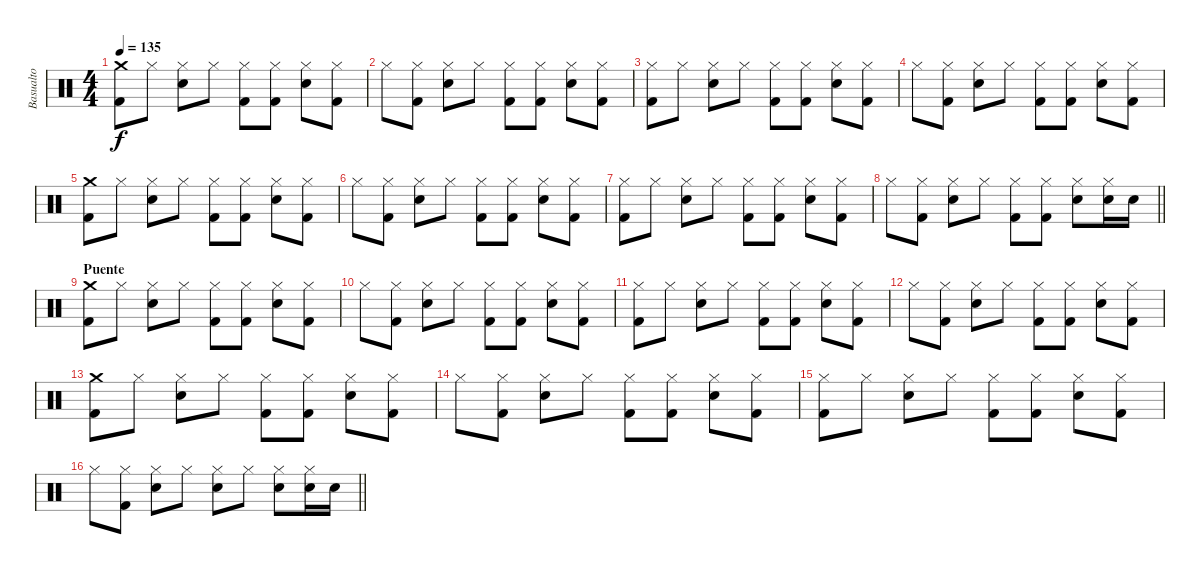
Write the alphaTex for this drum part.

\track ("Basualto" "Basualto") {instrument percussion}
\staff {score}
\articulation defaults
\ts (4 4)
\tempo 135
\clef neutral
\ks c
("Crash medium (hit)" "Kick (hit) 2").8{dy f} "Hi-Hat (closed)".8 ("Hi-Hat (closed)" "Snare (hit) 2").8 "Hi-Hat (closed)".8 ("Hi-Hat (closed)" "Kick (hit) 2").8 ("Hi-Hat (closed)" "Kick (hit) 2").8 ("Hi-Hat (closed)" "Snare (hit) 2").8 ("Hi-Hat (closed)" "Kick (hit) 2").8 |
"Hi-Hat (closed)".8 ("Hi-Hat (closed)" "Kick (hit) 2").8 ("Hi-Hat (closed)" "Snare (hit) 2").8 "Hi-Hat (closed)".8 ("Hi-Hat (closed)" "Kick (hit) 2").8 ("Hi-Hat (closed)" "Kick (hit) 2").8 ("Hi-Hat (closed)" "Snare (hit) 2").8 ("Hi-Hat (closed)" "Kick (hit) 2").8 |
("Hi-Hat (closed)" "Kick (hit) 2").8 "Hi-Hat (closed)".8 ("Hi-Hat (closed)" "Snare (hit) 2").8 "Hi-Hat (closed)".8 ("Hi-Hat (closed)" "Kick (hit) 2").8 ("Hi-Hat (closed)" "Kick (hit) 2").8 ("Hi-Hat (closed)" "Snare (hit) 2").8 ("Hi-Hat (closed)" "Kick (hit) 2").8 |
"Hi-Hat (closed)".8 ("Hi-Hat (closed)" "Kick (hit) 2").8 ("Hi-Hat (closed)" "Snare (hit) 2").8 "Hi-Hat (closed)".8 ("Hi-Hat (closed)" "Kick (hit) 2").8 ("Hi-Hat (closed)" "Kick (hit) 2").8 ("Hi-Hat (closed)" "Snare (hit) 2").8 ("Hi-Hat (closed)" "Kick (hit) 2").8 |
("Crash medium (hit)" "Kick (hit) 2").8 "Hi-Hat (closed)".8 ("Hi-Hat (closed)" "Snare (hit) 2").8 "Hi-Hat (closed)".8 ("Hi-Hat (closed)" "Kick (hit) 2").8 ("Hi-Hat (closed)" "Kick (hit) 2").8 ("Hi-Hat (closed)" "Snare (hit) 2").8 ("Hi-Hat (closed)" "Kick (hit) 2").8 |
"Hi-Hat (closed)".8 ("Hi-Hat (closed)" "Kick (hit) 2").8 ("Hi-Hat (closed)" "Snare (hit) 2").8 "Hi-Hat (closed)".8 ("Hi-Hat (closed)" "Kick (hit) 2").8 ("Hi-Hat (closed)" "Kick (hit) 2").8 ("Hi-Hat (closed)" "Snare (hit) 2").8 ("Hi-Hat (closed)" "Kick (hit) 2").8 |
("Hi-Hat (closed)" "Kick (hit) 2").8 "Hi-Hat (closed)".8 ("Hi-Hat (closed)" "Snare (hit) 2").8 "Hi-Hat (closed)".8 ("Hi-Hat (closed)" "Kick (hit) 2").8 ("Hi-Hat (closed)" "Kick (hit) 2").8 ("Hi-Hat (closed)" "Snare (hit) 2").8 ("Hi-Hat (closed)" "Kick (hit) 2").8 |
\barLineRight lightlight "Hi-Hat (closed)".8
("Hi-Hat (closed)" "Kick (hit) 2").8 ("Hi-Hat (closed)" "Snare (hit) 2").8 "Hi-Hat (closed)".8 ("Hi-Hat (closed)" "Kick (hit) 2").8 ("Hi-Hat (closed)" "Kick (hit) 2").8 ("Hi-Hat (closed)" "Snare (hit) 2").8 ("Hi-Hat (closed)" "Snare (hit) 2").16 "Snare (hit) 2".16 |
\section ("" "Puente")
("Crash medium (hit)" "Kick (hit) 2").8 "Hi-Hat (closed)".8 ("Hi-Hat (closed)" "Snare (hit) 2").8 "Hi-Hat (closed)".8 ("Hi-Hat (closed)" "Kick (hit) 2").8 ("Hi-Hat (closed)" "Kick (hit) 2").8 ("Hi-Hat (closed)" "Snare (hit) 2").8 ("Hi-Hat (closed)" "Kick (hit) 2").8 |
"Hi-Hat (closed)".8 ("Hi-Hat (closed)" "Kick (hit) 2").8 ("Hi-Hat (closed)" "Snare (hit) 2").8 "Hi-Hat (closed)".8 ("Hi-Hat (closed)" "Kick (hit) 2").8 ("Hi-Hat (closed)" "Kick (hit) 2").8 ("Hi-Hat (closed)" "Snare (hit) 2").8 ("Hi-Hat (closed)" "Kick (hit) 2").8 |
("Hi-Hat (closed)" "Kick (hit) 2").8 "Hi-Hat (closed)".8 ("Hi-Hat (closed)" "Snare (hit) 2").8 "Hi-Hat (closed)".8 ("Hi-Hat (closed)" "Kick (hit) 2").8 ("Hi-Hat (closed)" "Kick (hit) 2").8 ("Hi-Hat (closed)" "Snare (hit) 2").8 ("Hi-Hat (closed)" "Kick (hit) 2").8 |
"Hi-Hat (closed)".8 ("Hi-Hat (closed)" "Kick (hit) 2").8 ("Hi-Hat (closed)" "Snare (hit) 2").8 "Hi-Hat (closed)".8 ("Hi-Hat (closed)" "Kick (hit) 2").8 ("Hi-Hat (closed)" "Kick (hit) 2").8 ("Hi-Hat (closed)" "Snare (hit) 2").8 ("Hi-Hat (closed)" "Kick (hit) 2").8 |
("Crash medium (hit)" "Kick (hit) 2").8 "Hi-Hat (closed)".8 ("Hi-Hat (closed)" "Snare (hit) 2").8 "Hi-Hat (closed)".8 ("Hi-Hat (closed)" "Kick (hit) 2").8 ("Hi-Hat (closed)" "Kick (hit) 2").8 ("Hi-Hat (closed)" "Snare (hit) 2").8 ("Hi-Hat (closed)" "Kick (hit) 2").8 |
"Hi-Hat (closed)".8 ("Hi-Hat (closed)" "Kick (hit) 2").8 ("Hi-Hat (closed)" "Snare (hit) 2").8 "Hi-Hat (closed)".8 ("Hi-Hat (closed)" "Kick (hit) 2").8 ("Hi-Hat (closed)" "Kick (hit) 2").8 ("Hi-Hat (closed)" "Snare (hit) 2").8 ("Hi-Hat (closed)" "Kick (hit) 2").8 |
("Hi-Hat (closed)" "Kick (hit) 2").8 "Hi-Hat (closed)".8 ("Hi-Hat (closed)" "Snare (hit) 2").8 "Hi-Hat (closed)".8 ("Hi-Hat (closed)" "Kick (hit) 2").8 ("Hi-Hat (closed)" "Kick (hit) 2").8 ("Hi-Hat (closed)" "Snare (hit) 2").8 ("Hi-Hat (closed)" "Kick (hit) 2").8 |
\barLineRight lightlight "Hi-Hat (closed)".8
("Hi-Hat (closed)" "Kick (hit) 2").8 ("Hi-Hat (closed)" "Snare (hit) 2").8 "Hi-Hat (closed)".8 ("Hi-Hat (closed)" "Snare (hit) 2").8 "Hi-Hat (closed)".8 ("Hi-Hat (closed)" "Snare (hit) 2").8 ("Hi-Hat (closed)" "Snare (hit) 2").16 "Snare (hit) 2".16
